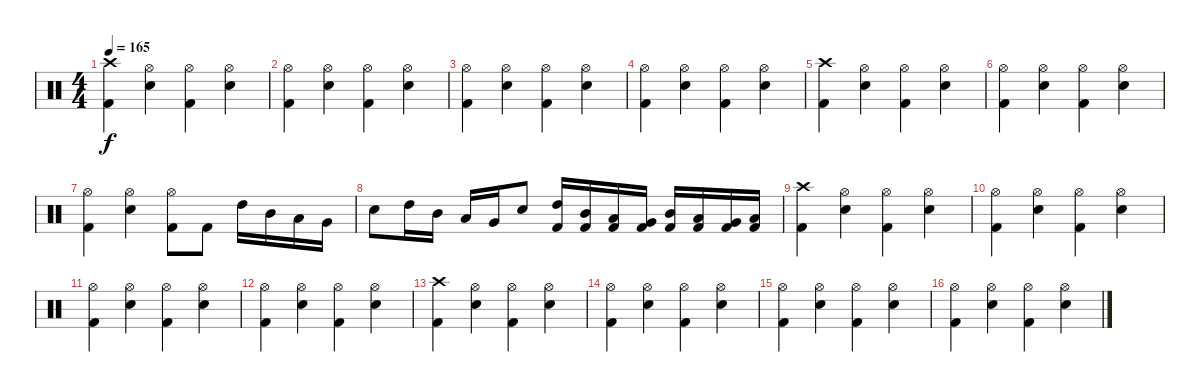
\track "" {instrument percussion}
\staff {score}
\articulation defaults
\ts (4 4)
\tempo 165
\clef neutral
\ks c
("Kick (hit) 2" "Crash high (hit)").4{dy f} ("Electric Snare (hit)" "Hi-Hat (open)").4 ("Kick (hit) 2" "Hi-Hat (open)").4 ("Electric Snare (hit)" "Hi-Hat (open)").4 |
("Hi-Hat (open)" "Kick (hit) 2").4 ("Hi-Hat (open)" "Electric Snare (hit)").4 ("Hi-Hat (open)" "Kick (hit) 2").4 ("Hi-Hat (open)" "Electric Snare (hit)").4 |
("Hi-Hat (open)" "Kick (hit) 2").4 ("Hi-Hat (open)" "Electric Snare (hit)").4 ("Hi-Hat (open)" "Kick (hit) 2").4 ("Hi-Hat (open)" "Electric Snare (hit)").4 |
("Hi-Hat (open)" "Kick (hit) 2").4 ("Hi-Hat (open)" "Electric Snare (hit)").4 ("Hi-Hat (open)" "Kick (hit) 2").4 ("Hi-Hat (open)" "Electric Snare (hit)").4 |
("Kick (hit) 2" "Crash high (hit)").4 ("Electric Snare (hit)" "Hi-Hat (open)").4 ("Kick (hit) 2" "Hi-Hat (open)").4 ("Electric Snare (hit)" "Hi-Hat (open)").4 |
("Hi-Hat (open)" "Kick (hit) 2").4 ("Hi-Hat (open)" "Electric Snare (hit)").4 ("Hi-Hat (open)" "Kick (hit) 2").4 ("Hi-Hat (open)" "Electric Snare (hit)").4 |
("Hi-Hat (open)" "Kick (hit) 2").4 ("Hi-Hat (open)" "Electric Snare (hit)").4 ("Hi-Hat (open)" "Kick (hit) 2").8 "Kick (hit) 2".8 "High Tom (hit)".16 "Mid Tom (hit)".16 "Low Tom (hit)".16 "Very Low Tom (hit)".16 |
"Electric Snare (hit)".8 "High Tom (hit)".16 "Mid Tom (hit)".16 "Low Tom (hit)".16 "Very Low Tom (hit)".16 "Electric Snare (hit)".8 ("Kick (hit) 2" "High Tom (hit)").16 ("Kick (hit) 2" "Mid Tom (hit)").16 ("Kick (hit) 2" "Low Tom (hit)").16 ("Kick (hit) 2" "Very Low Tom (hit)").16 ("Kick (hit) 2" "Mid Tom (hit)").16 ("Kick (hit) 2" "Low Tom (hit)").16 ("Kick (hit) 2" "Very Low Tom (hit)").16 ("Kick (hit) 2" "Low Floor Tom (hit)").16 |
("Kick (hit) 2" "Crash high (hit)").4 ("Electric Snare (hit)" "Hi-Hat (open)").4 ("Kick (hit) 2" "Hi-Hat (open)").4 ("Electric Snare (hit)" "Hi-Hat (open)").4 |
("Hi-Hat (open)" "Kick (hit) 2").4 ("Hi-Hat (open)" "Electric Snare (hit)").4 ("Hi-Hat (open)" "Kick (hit) 2").4 ("Hi-Hat (open)" "Electric Snare (hit)").4 |
("Hi-Hat (open)" "Kick (hit) 2").4 ("Hi-Hat (open)" "Electric Snare (hit)").4 ("Hi-Hat (open)" "Kick (hit) 2").4 ("Hi-Hat (open)" "Electric Snare (hit)").4 |
("Hi-Hat (open)" "Kick (hit) 2").4 ("Hi-Hat (open)" "Electric Snare (hit)").4 ("Hi-Hat (open)" "Kick (hit) 2").4 ("Hi-Hat (open)" "Electric Snare (hit)").4 |
("Kick (hit) 2" "Crash high (hit)").4 ("Electric Snare (hit)" "Hi-Hat (open)").4 ("Kick (hit) 2" "Hi-Hat (open)").4 ("Electric Snare (hit)" "Hi-Hat (open)").4 |
("Hi-Hat (open)" "Kick (hit) 2").4 ("Hi-Hat (open)" "Electric Snare (hit)").4 ("Hi-Hat (open)" "Kick (hit) 2").4 ("Hi-Hat (open)" "Electric Snare (hit)").4 |
("Hi-Hat (open)" "Kick (hit) 2").4 ("Hi-Hat (open)" "Electric Snare (hit)").4 ("Hi-Hat (open)" "Kick (hit) 2").4 ("Hi-Hat (open)" "Electric Snare (hit)").4 |
("Hi-Hat (open)" "Kick (hit) 2").4 ("Hi-Hat (open)" "Electric Snare (hit)").4 ("Hi-Hat (open)" "Kick (hit) 2").4 ("Hi-Hat (open)" "Electric Snare (hit)").4
